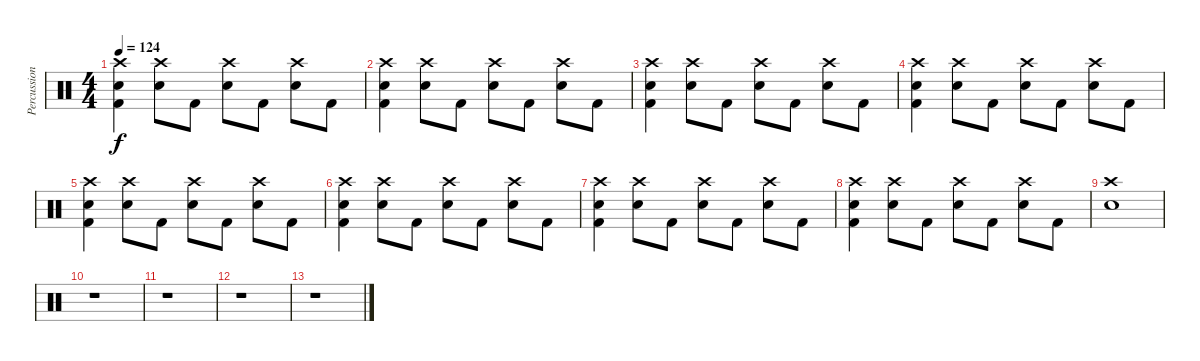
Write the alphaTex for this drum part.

\track ("Percussion" "Percussion") {instrument percussion}
\staff {score}
\articulation defaults
\ts (4 4)
\tempo 124
\clef neutral
\ks c
("Crash high (hit)" "Electric Snare (hit)" "Kick (hit) 2").4{dy f} ("Crash high (hit)" "Electric Snare (hit)").8 "Kick (hit) 2".8 ("Crash high (hit)" "Electric Snare (hit)").8 "Kick (hit) 2".8 ("Crash high (hit)" "Electric Snare (hit)").8 "Kick (hit) 2".8 |
("Crash high (hit)" "Electric Snare (hit)" "Kick (hit) 2").4 ("Crash high (hit)" "Electric Snare (hit)").8 "Kick (hit) 2".8 ("Crash high (hit)" "Electric Snare (hit)").8 "Kick (hit) 2".8 ("Crash high (hit)" "Electric Snare (hit)").8 "Kick (hit) 2".8 |
("Crash high (hit)" "Electric Snare (hit)" "Kick (hit) 2").4 ("Crash high (hit)" "Electric Snare (hit)").8 "Kick (hit) 2".8 ("Crash high (hit)" "Electric Snare (hit)").8 "Kick (hit) 2".8 ("Crash high (hit)" "Electric Snare (hit)").8 "Kick (hit) 2".8 |
("Crash high (hit)" "Electric Snare (hit)" "Kick (hit) 2").4 ("Crash high (hit)" "Electric Snare (hit)").8 "Kick (hit) 2".8 ("Crash high (hit)" "Electric Snare (hit)").8 "Kick (hit) 2".8 ("Crash high (hit)" "Electric Snare (hit)").8 "Kick (hit) 2".8 |
("Crash high (hit)" "Electric Snare (hit)" "Kick (hit) 2").4 ("Crash high (hit)" "Electric Snare (hit)").8 "Kick (hit) 2".8 ("Crash high (hit)" "Electric Snare (hit)").8 "Kick (hit) 2".8 ("Crash high (hit)" "Electric Snare (hit)").8 "Kick (hit) 2".8 |
("Crash high (hit)" "Electric Snare (hit)" "Kick (hit) 2").4 ("Crash high (hit)" "Electric Snare (hit)").8 "Kick (hit) 2".8 ("Crash high (hit)" "Electric Snare (hit)").8 "Kick (hit) 2".8 ("Crash high (hit)" "Electric Snare (hit)").8 "Kick (hit) 2".8 |
("Crash high (hit)" "Electric Snare (hit)" "Kick (hit) 2").4 ("Crash high (hit)" "Electric Snare (hit)").8 "Kick (hit) 2".8 ("Crash high (hit)" "Electric Snare (hit)").8 "Kick (hit) 2".8 ("Crash high (hit)" "Electric Snare (hit)").8 "Kick (hit) 2".8 |
("Crash high (hit)" "Electric Snare (hit)" "Kick (hit) 2").4 ("Crash high (hit)" "Electric Snare (hit)").8 "Kick (hit) 2".8 ("Crash high (hit)" "Electric Snare (hit)").8 "Kick (hit) 2".8 ("Crash high (hit)" "Electric Snare (hit)").8 "Kick (hit) 2".8 |
("Crash high (hit)" "Electric Snare (hit)").1 |
r.1 |
r.1 |
r.1 |
r.1
